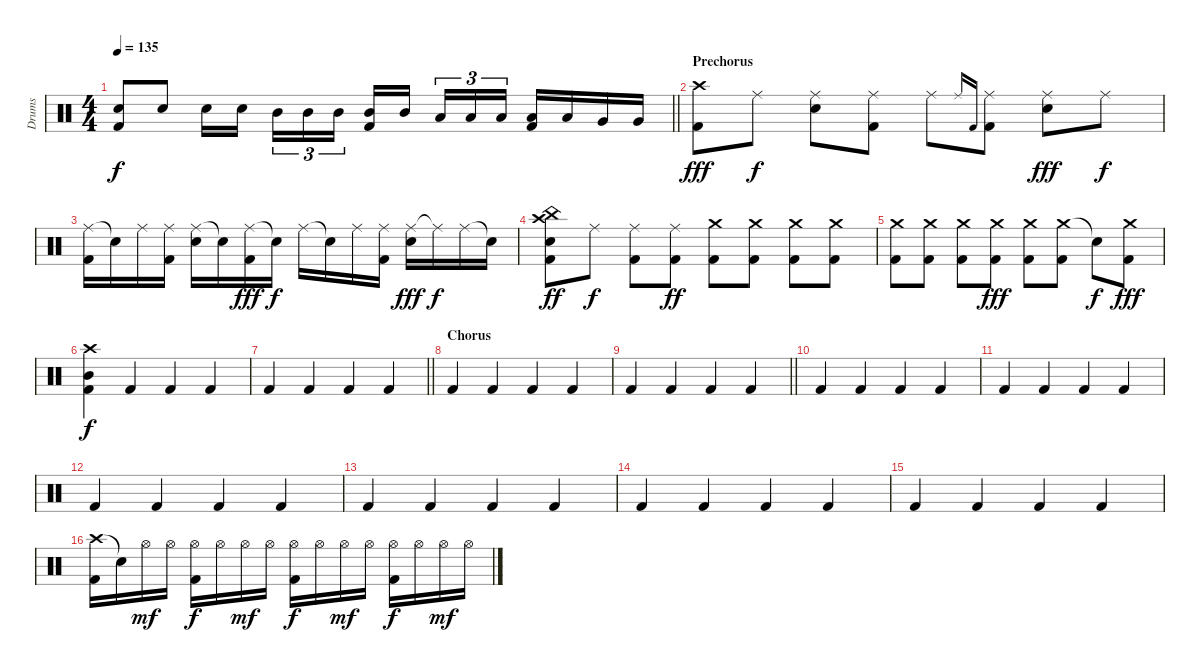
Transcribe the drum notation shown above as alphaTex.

\track ("Drums" "Drums") {instrument percussion}
\staff {score}
\articulation defaults
\ts (4 4)
\tempo 135
\clef neutral
\barLineRight lightlight
\ks c
("Snare (hit) 2" "Kick (hit) 2").8{dy f} "Snare (hit) 2".8 "Snare (hit) 2".16 "Snare (hit) 2".16{beam splitsecondary} "Mid Tom (hit)".16{tu (3 2)} "Mid Tom (hit)".16{tu (3 2)} "Mid Tom (hit)".16{tu (3 2)} ("Mid Tom (hit)" "Kick (hit) 2").16 "Mid Tom (hit)".16{beam splitsecondary} "Low Tom (hit)".16{tu (3 2)} "Low Tom (hit)".16{tu (3 2)} "Low Tom (hit)".16{tu (3 2)} ("Low Tom (hit)" "Kick (hit) 2").16 "Low Tom (hit)".16 "Very Low Tom (hit)".16 "Very Low Tom (hit)".16 |
\section ("" "Prechorus")
("Crash high (hit)" "Kick (hit) 2").8{dy fff} "Ride (middle)".8{dy f} ("Ride (middle)" "Snare (hit) 2").8 ("Ride (middle)" "Kick (hit) 2").8 "Ride (middle)".8 "Ride (middle)".16{gr onbeat} "Kick (hit) 2".16{gr onbeat} ("Ride (middle)" "Kick (hit) 2").8 ("Ride (middle)" "Snare (hit) 2").8{dy fff} "Ride (middle)".8{dy f} |
("Ride (middle)" "Kick (hit) 2").16 "Snare (hit)"{t}.16 "Ride (middle)".16 ("Ride (middle)" "Kick (hit) 2").16 ("Ride (middle)" "Snare (hit) 2").16 "Snare (hit)"{t}.16 ("Ride (middle)" "Kick (hit) 2").16{dy fff} "Snare (hit)"{t}.16{dy f} "Ride (middle)".16 "Snare (hit)"{t}.16 "Ride (middle)".16 ("Ride (middle)" "Kick (hit) 2").16 ("Ride (middle)" "Snare (hit) 2").16{dy fff} "Ride (middle)"{t}.16{dy f} "Ride (middle)".16 "Snare (hit)"{t}.16 |
("China (hit)" "Crash high (hit)" "Snare (hit) 2" "Kick (hit) 2").8{dy ff} "Ride (middle)".8{dy f} ("Ride (middle)" "Kick (hit) 2").8 ("Ride (middle)" "Kick (hit) 2").8{dy ff} ("Crash medium (hit)" "Kick (hit) 2").8 ("Crash medium (hit)" "Kick (hit) 2").8 ("Crash medium (hit)" "Kick (hit) 2").8 ("Crash medium (hit)" "Kick (hit) 2").8 |
("Crash medium (hit)" "Kick (hit) 2").8 ("Crash medium (hit)" "Kick (hit) 2").8 ("Crash medium (hit)" "Kick (hit) 2").8 ("Crash medium (hit)" "Kick (hit) 2").8{dy fff} ("Crash medium (hit)" "Kick (hit) 2").8 ("Crash medium (hit)" "Kick (hit) 2").8 "Snare (hit)"{t}.8{dy f} ("Crash medium (hit)" "Kick (hit) 2").8{dy fff} |
("Crash high (hit)" "Mid Tom (hit)" "Kick (hit) 2").4{dy f} "Kick (hit) 2".4 "Kick (hit) 2".4 "Kick (hit) 2".4 |
\barLineRight lightlight "Kick (hit) 2".4 "Kick (hit) 2".4 "Kick (hit) 2".4 "Kick (hit) 2".4
|
\section ("" "Chorus")
"Kick (hit) 2".4 "Kick (hit) 2".4 "Kick (hit) 2".4 "Kick (hit) 2".4 |
\barLineRight lightlight "Kick (hit) 2".4 "Kick (hit) 2".4 "Kick (hit) 2".4 "Kick (hit) 2".4
|
"Kick (hit) 2".4 "Kick (hit) 2".4 "Kick (hit) 2".4 "Kick (hit) 2".4 |
"Kick (hit) 2".4 "Kick (hit) 2".4 "Kick (hit) 2".4 "Kick (hit) 2".4 |
"Kick (hit) 2".4 "Kick (hit) 2".4 "Kick (hit) 2".4 "Kick (hit) 2".4 |
"Kick (hit) 2".4 "Kick (hit) 2".4 "Kick (hit) 2".4 "Kick (hit) 2".4 |
"Kick (hit) 2".4 "Kick (hit) 2".4 "Kick (hit) 2".4 "Kick (hit) 2".4 |
"Kick (hit) 2".4 "Kick (hit) 2".4 "Kick (hit) 2".4 "Kick (hit) 2".4 |
("Crash high (hit)" "Kick (hit) 2").16 "Snare (hit)"{t}.16 "Hi-Hat (open)".16{dy mf} "Hi-Hat (open)".16 ("Hi-Hat (open)" "Kick (hit) 2").16{dy f} "Hi-Hat (open)".16 "Hi-Hat (open)".16{dy mf} "Hi-Hat (open)".16 ("Hi-Hat (open)" "Kick (hit) 2").16{dy f} "Hi-Hat (open)".16 "Hi-Hat (open)".16{dy mf} "Hi-Hat (open)".16 ("Hi-Hat (open)" "Kick (hit) 2").16{dy f} "Hi-Hat (open)".16 "Hi-Hat (open)".16{dy mf} "Hi-Hat (open)".16
